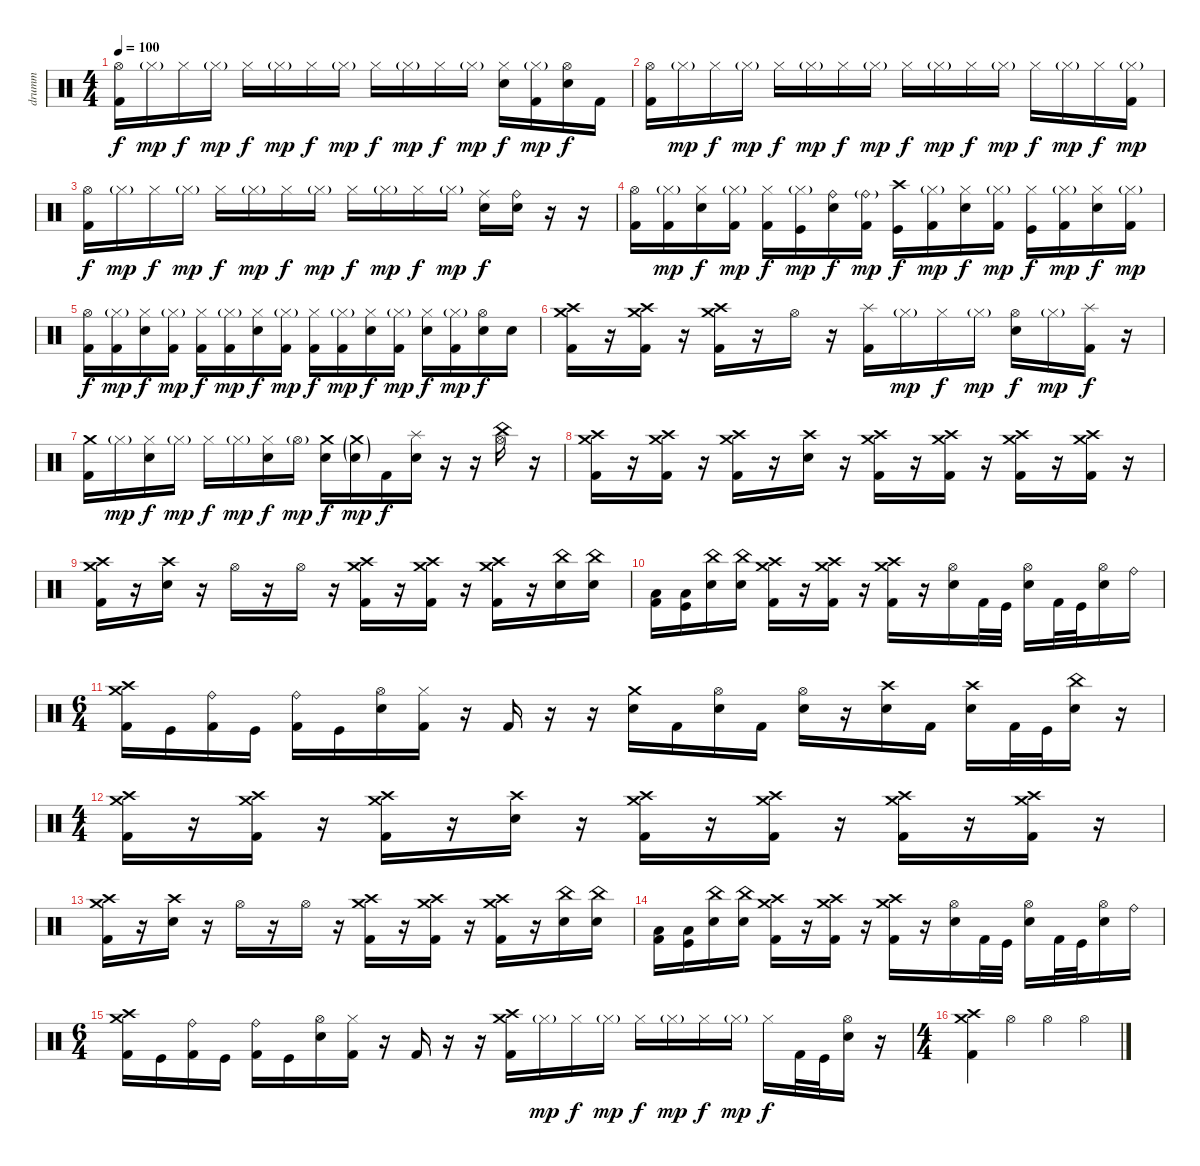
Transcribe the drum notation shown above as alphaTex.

\track ("drumm" "drumm") {instrument percussion}
\staff
\articulation defaults
\ts (4 4)
\tempo 100
\clef neutral
\ks c
("Kick (hit) 2" "Hi-Hat (open)").16{dy f} "Hi-Hat (closed)"{g}.16{dy mp} "Hi-Hat (closed)".16{dy f} "Hi-Hat (closed)"{g}.16{dy mp} "Hi-Hat (closed)".16{dy f} "Hi-Hat (closed)"{g}.16{dy mp} "Hi-Hat (closed)".16{dy f} "Hi-Hat (closed)"{g}.16{dy mp} "Hi-Hat (closed)".16{dy f} "Hi-Hat (closed)"{g}.16{dy mp} "Hi-Hat (closed)".16{dy f} "Hi-Hat (closed)"{g}.16{dy mp} ("Hi-Hat (closed)" "Electric Snare (hit)").16{dy f} ("Hi-Hat (closed)"{g} "Kick (hit) 2").16{dy mp} ("Hi-Hat (open)" "Electric Snare (hit)").16{dy f} "Kick (hit) 2".16 |
("Kick (hit) 2" "Hi-Hat (open)").16 "Hi-Hat (closed)"{g}.16{dy mp} "Hi-Hat (closed)".16{dy f} "Hi-Hat (closed)"{g}.16{dy mp} "Hi-Hat (closed)".16{dy f} "Hi-Hat (closed)"{g}.16{dy mp} "Hi-Hat (closed)".16{dy f} "Hi-Hat (closed)"{g}.16{dy mp} "Hi-Hat (closed)".16{dy f} "Hi-Hat (closed)"{g}.16{dy mp} "Hi-Hat (closed)".16{dy f} "Hi-Hat (closed)"{g}.16{dy mp} "Hi-Hat (closed)".16{dy f} "Hi-Hat (closed)"{g}.16{dy mp} "Hi-Hat (closed)".16{dy f} ("Hi-Hat (closed)"{g} "Kick (hit) 2").16{dy mp} |
("Kick (hit) 2" "Hi-Hat (open)").16{dy f} "Hi-Hat (closed)"{g}.16{dy mp} "Hi-Hat (closed)".16{dy f} "Hi-Hat (closed)"{g}.16{dy mp} "Hi-Hat (closed)".16{dy f} "Hi-Hat (closed)"{g}.16{dy mp} "Hi-Hat (closed)".16{dy f} "Hi-Hat (closed)"{g}.16{dy mp} "Hi-Hat (closed)".16{dy f} "Hi-Hat (closed)"{g}.16{dy mp} "Hi-Hat (closed)".16{dy f} "Hi-Hat (closed)"{g}.16{dy mp} ("Ride (middle)" "Electric Snare (hit)").16{dy f} ("Ride (bell)" "Electric Snare (hit)").16 r.16 r.16 |
("Kick (hit) 2" "Hi-Hat (open)").16 ("Hi-Hat (closed)"{g} "Kick (hit) 2").16{dy mp} ("Hi-Hat (closed)" "Electric Snare (hit)").16{dy f} ("Hi-Hat (closed)"{g} "Kick (hit) 2").16{dy mp} ("Hi-Hat (closed)" "Kick (hit) 2").16{dy f} ("Hi-Hat (closed)"{g} "Kick (hit)").16{dy mp} ("Ride (bell)" "Electric Snare (hit)").16{dy f} ("Ride (bell)"{g} "Kick (hit) 2").16{dy mp} ("Crash high (hit)" "Kick (hit)").16{dy f} ("Hi-Hat (closed)"{g} "Kick (hit) 2").16{dy mp} ("Hi-Hat (closed)" "Electric Snare (hit)").16{dy f} ("Hi-Hat (closed)"{g} "Kick (hit) 2").16{dy mp} ("Hi-Hat (closed)" "Kick (hit)").16{dy f} ("Hi-Hat (closed)"{g} "Kick (hit) 2").16{dy mp} ("Hi-Hat (closed)" "Electric Snare (hit)").16{dy f} ("Hi-Hat (closed)"{g} "Kick (hit) 2").16{dy mp} |
("Kick (hit) 2" "Hi-Hat (open)").16{dy f} ("Hi-Hat (closed)"{g} "Kick (hit) 2").16{dy mp} ("Hi-Hat (closed)" "Electric Snare (hit)").16{dy f} ("Hi-Hat (closed)"{g} "Kick (hit) 2").16{dy mp} ("Hi-Hat (closed)" "Kick (hit) 2").16{dy f} ("Hi-Hat (closed)"{g} "Kick (hit) 2").16{dy mp} ("Hi-Hat (closed)" "Electric Snare (hit)").16{dy f} ("Hi-Hat (closed)"{g} "Kick (hit) 2").16{dy mp} ("Hi-Hat (closed)" "Kick (hit) 2").16{dy f} ("Hi-Hat (closed)"{g} "Kick (hit) 2").16{dy mp} ("Hi-Hat (closed)" "Electric Snare (hit)").16{dy f} ("Hi-Hat (closed)"{g} "Kick (hit) 2").16{dy mp} ("Hi-Hat (closed)" "Electric Snare (hit)").16{dy f} ("Hi-Hat (closed)"{g} "Kick (hit) 2").16{dy mp} ("Hi-Hat (open)" "Electric Snare (hit)").16{dy f} "Electric Snare (hit)".16 |
("Kick (hit) 2" "Crash medium (hit)" "Crash high (hit)").16 r.16 ("Kick (hit) 2" "Crash medium (hit)" "Crash high (hit)").16 r.16 ("Crash medium (hit)" "Crash high (hit)" "Kick (hit) 2").16 r.16 "Hi-Hat (open)".16 r.16 ("Splash (hit)" "Kick (hit) 2").16 "Hi-Hat (closed)"{g}.16{dy mp} "Hi-Hat (closed)".16{dy f} "Hi-Hat (closed)"{g}.16{dy mp} ("Hi-Hat (open)" "Electric Snare (hit)").16{dy f} "Hi-Hat (closed)"{g}.16{dy mp} ("Splash (hit)" "Kick (hit) 2").16{dy f} r.16 |
("Kick (hit) 2" "Crash medium (hit)").16 "Hi-Hat (closed)"{g}.16{dy mp} ("Hi-Hat (closed)" "Electric Snare (hit)").16{dy f} "Hi-Hat (closed)"{g}.16{dy mp} "Hi-Hat (closed)".16{dy f} "Hi-Hat (closed)"{g}.16{dy mp} ("Hi-Hat (closed)" "Electric Snare (hit)").16{dy f} "Hi-Hat (open)"{g}.16{dy mp} ("Electric Snare (hit)" "Crash medium (hit)").16{dy f} ("Electric Snare (hit)"{g} "Crash medium (hit)"{g}).16{dy mp} "Kick (hit) 2".16{dy f} ("Splash (hit)" "Electric Snare (hit)").16 r.16 r.16 ("China (hit)" "Hi-Hat (open)").16 r.16 |
("Kick (hit) 2" "Crash medium (hit)" "Crash high (hit)").16 r.16 ("Kick (hit) 2" "Crash medium (hit)" "Crash high (hit)").16 r.16 ("Kick (hit) 2" "Crash medium (hit)" "Crash high (hit)").16 r.16 ("Electric Snare (hit)" "Crash high (hit)").16 r.16 ("Kick (hit) 2" "Crash medium (hit)" "Crash high (hit)").16 r.16 ("Kick (hit) 2" "Crash medium (hit)" "Crash high (hit)").16 r.16 ("Kick (hit) 2" "Crash medium (hit)" "Crash high (hit)").16 r.16 ("Kick (hit) 2" "Crash medium (hit)" "Crash high (hit)").16 r.16 |
("Kick (hit) 2" "Crash medium (hit)" "Crash high (hit)").16 r.16 ("Electric Snare (hit)" "Crash high (hit)").16 r.16 "Hi-Hat (open)".16 r.16 "Hi-Hat (open)".16 r.16 ("Kick (hit) 2" "Crash medium (hit)" "Crash high (hit)").16 r.16 ("Kick (hit) 2" "Crash medium (hit)" "Crash high (hit)").16 r.16 ("Kick (hit) 2" "Crash medium (hit)" "Crash high (hit)").16 r.16 ("Electric Snare (hit)" "China (hit)").16 ("Electric Snare (hit)" "China (hit)").16 |
("Kick (hit) 2" "Low Tom (hit)").16 ("Kick (hit)" "Low Floor Tom (hit)").16 ("Electric Snare (hit)" "China (hit)").16 ("Electric Snare (hit)" "China (hit)").16 ("Kick (hit) 2" "Crash medium (hit)" "Crash high (hit)").16 r.16 ("Kick (hit) 2" "Crash medium (hit)" "Crash high (hit)").16 r.16 ("Kick (hit) 2" "Crash medium (hit)" "Crash high (hit)").16 r.16 ("Electric Snare (hit)" "Hi-Hat (open)").16 "Kick (hit) 2".32 "Kick (hit)".32 ("Electric Snare (hit)" "Hi-Hat (open)").16 "Kick (hit) 2".32 "Kick (hit)".32 ("Electric Snare (hit)" "Hi-Hat (open)").16 "Ride (bell)".16 |
\ts (6 4)
("Kick (hit) 2" "Crash medium (hit)" "Crash high (hit)").16 "Kick (hit)".16 ("Kick (hit) 2" "Ride (bell)").16 "Kick (hit)".16 ("Kick (hit) 2" "Ride (bell)").16 "Kick (hit)".16 ("Electric Snare (hit)" "Hi-Hat (open)").16 ("Kick (hit) 2" "Hi-Hat (closed)").16 r.16 "Kick (hit) 2".16 r.16 r.16 ("Electric Snare (hit)" "Crash medium (hit)").16 "Kick (hit) 2".16 ("Electric Snare (hit)" "Hi-Hat (open)").16 "Kick (hit) 2".16 ("Electric Snare (hit)" "Hi-Hat (open)").16 r.16 ("Electric Snare (hit)" "Crash high (hit)").16 "Kick (hit) 2".16 ("Electric Snare (hit)" "Crash high (hit)").16 "Kick (hit) 2".32 "Kick (hit)".32 ("Electric Snare (hit)" "China (hit)").16 r.16 |
\ts (4 4)
("Kick (hit) 2" "Crash medium (hit)" "Crash high (hit)").16 r.16 ("Kick (hit) 2" "Crash medium (hit)" "Crash high (hit)").16 r.16 ("Kick (hit) 2" "Crash medium (hit)" "Crash high (hit)").16 r.16 ("Electric Snare (hit)" "Crash high (hit)").16 r.16 ("Kick (hit) 2" "Crash medium (hit)" "Crash high (hit)").16 r.16 ("Kick (hit) 2" "Crash medium (hit)" "Crash high (hit)").16 r.16 ("Kick (hit) 2" "Crash medium (hit)" "Crash high (hit)").16 r.16 ("Kick (hit) 2" "Crash medium (hit)" "Crash high (hit)").16 r.16 |
("Kick (hit) 2" "Crash medium (hit)" "Crash high (hit)").16 r.16 ("Electric Snare (hit)" "Crash high (hit)").16 r.16 "Hi-Hat (open)".16 r.16 "Hi-Hat (open)".16 r.16 ("Kick (hit) 2" "Crash medium (hit)" "Crash high (hit)").16 r.16 ("Kick (hit) 2" "Crash medium (hit)" "Crash high (hit)").16 r.16 ("Kick (hit) 2" "Crash medium (hit)" "Crash high (hit)").16 r.16 ("Electric Snare (hit)" "China (hit)").16 ("Electric Snare (hit)" "China (hit)").16 |
("Kick (hit) 2" "Low Tom (hit)").16 ("Kick (hit)" "Low Floor Tom (hit)").16 ("Electric Snare (hit)" "China (hit)").16 ("Electric Snare (hit)" "China (hit)").16 ("Kick (hit) 2" "Crash medium (hit)" "Crash high (hit)").16 r.16 ("Kick (hit) 2" "Crash medium (hit)" "Crash high (hit)").16 r.16 ("Kick (hit) 2" "Crash medium (hit)" "Crash high (hit)").16 r.16 ("Electric Snare (hit)" "Hi-Hat (open)").16 "Kick (hit) 2".32 "Kick (hit)".32 ("Electric Snare (hit)" "Hi-Hat (open)").16 "Kick (hit) 2".32 "Kick (hit)".32 ("Electric Snare (hit)" "Hi-Hat (open)").16 "Ride (bell)".16 |
\ts (6 4)
("Kick (hit) 2" "Crash medium (hit)" "Crash high (hit)").16 "Kick (hit)".16 ("Kick (hit) 2" "Ride (bell)").16 "Kick (hit)".16 ("Kick (hit) 2" "Ride (bell)").16 "Kick (hit)".16 ("Electric Snare (hit)" "Hi-Hat (open)").16 ("Kick (hit) 2" "Hi-Hat (closed)").16 r.16 "Kick (hit) 2".16 r.16 r.16 ("Kick (hit) 2" "Crash medium (hit)" "Crash high (hit)").16 "Hi-Hat (closed)"{g}.16{dy mp} "Hi-Hat (closed)".16{dy f} "Hi-Hat (closed)"{g}.16{dy mp} "Hi-Hat (closed)".16{dy f} "Hi-Hat (closed)"{g}.16{dy mp} "Hi-Hat (closed)".16{dy f} "Hi-Hat (closed)"{g}.16{dy mp} "Hi-Hat (closed)".16{dy f} "Kick (hit) 2".32 "Kick (hit)".32 ("Electric Snare (hit)" "Hi-Hat (open)").16 r.16 |
\ts (4 4)
("Kick (hit) 2" "Crash medium (hit)" "Crash high (hit)").4 "Hi-Hat (open)".4 "Hi-Hat (open)".4 "Hi-Hat (open)".4
